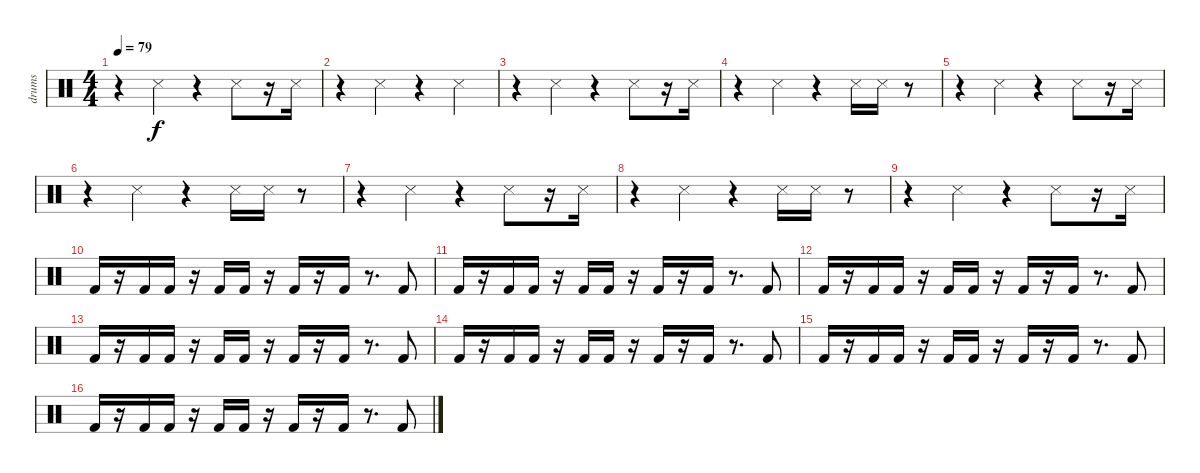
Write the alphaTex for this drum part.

\track ("drums" "drums") {instrument percussion}
\staff {score}
\articulation defaults
\ts (4 4)
\tempo 79
\clef neutral
\ks c
r.4{dy f} "Snare (side stick) 3".4 r.4 "Snare (side stick) 3".8 r.16 "Snare (side stick) 3".16 |
r.4 "Snare (side stick) 3".4 r.4 "Snare (side stick) 3".4 |
r.4 "Snare (side stick) 3".4 r.4 "Snare (side stick) 3".8 r.16 "Snare (side stick) 3".16 |
r.4 "Snare (side stick) 3".4 r.4 "Snare (side stick) 3".16 "Snare (side stick) 3".16 r.8 |
r.4 "Snare (side stick) 3".4 r.4 "Snare (side stick) 3".8 r.16 "Snare (side stick) 3".16 |
r.4 "Snare (side stick) 3".4 r.4 "Snare (side stick) 3".16 "Snare (side stick) 3".16 r.8 |
r.4 "Snare (side stick) 3".4 r.4 "Snare (side stick) 3".8 r.16 "Snare (side stick) 3".16 |
r.4 "Snare (side stick) 3".4 r.4 "Snare (side stick) 3".16 "Snare (side stick) 3".16 r.8 |
r.4 "Snare (side stick) 3".4 r.4 "Snare (side stick) 3".8 r.16 "Snare (side stick) 3".16 |
"Kick (hit) 2".16 r.16 "Kick (hit) 2".16 "Kick (hit) 2".16 r.16 "Kick (hit) 2".16 "Kick (hit) 2".16 r.16 "Kick (hit) 2".16 r.16 "Kick (hit) 2".16 r.8{d} "Kick (hit) 2".8 |
"Kick (hit) 2".16 r.16 "Kick (hit) 2".16 "Kick (hit) 2".16 r.16 "Kick (hit) 2".16 "Kick (hit) 2".16 r.16 "Kick (hit) 2".16 r.16 "Kick (hit) 2".16 r.8{d} "Kick (hit) 2".8 |
"Kick (hit) 2".16 r.16 "Kick (hit) 2".16 "Kick (hit) 2".16 r.16 "Kick (hit) 2".16 "Kick (hit) 2".16 r.16 "Kick (hit) 2".16 r.16 "Kick (hit) 2".16 r.8{d} "Kick (hit) 2".8 |
"Kick (hit) 2".16 r.16 "Kick (hit) 2".16 "Kick (hit) 2".16 r.16 "Kick (hit) 2".16 "Kick (hit) 2".16 r.16 "Kick (hit) 2".16 r.16 "Kick (hit) 2".16 r.8{d} "Kick (hit) 2".8 |
"Kick (hit) 2".16 r.16 "Kick (hit) 2".16 "Kick (hit) 2".16 r.16 "Kick (hit) 2".16 "Kick (hit) 2".16 r.16 "Kick (hit) 2".16 r.16 "Kick (hit) 2".16 r.8{d} "Kick (hit) 2".8 |
"Kick (hit) 2".16 r.16 "Kick (hit) 2".16 "Kick (hit) 2".16 r.16 "Kick (hit) 2".16 "Kick (hit) 2".16 r.16 "Kick (hit) 2".16 r.16 "Kick (hit) 2".16 r.8{d} "Kick (hit) 2".8 |
"Kick (hit) 2".16 r.16 "Kick (hit) 2".16 "Kick (hit) 2".16 r.16 "Kick (hit) 2".16 "Kick (hit) 2".16 r.16 "Kick (hit) 2".16 r.16 "Kick (hit) 2".16 r.8{d} "Kick (hit) 2".8
